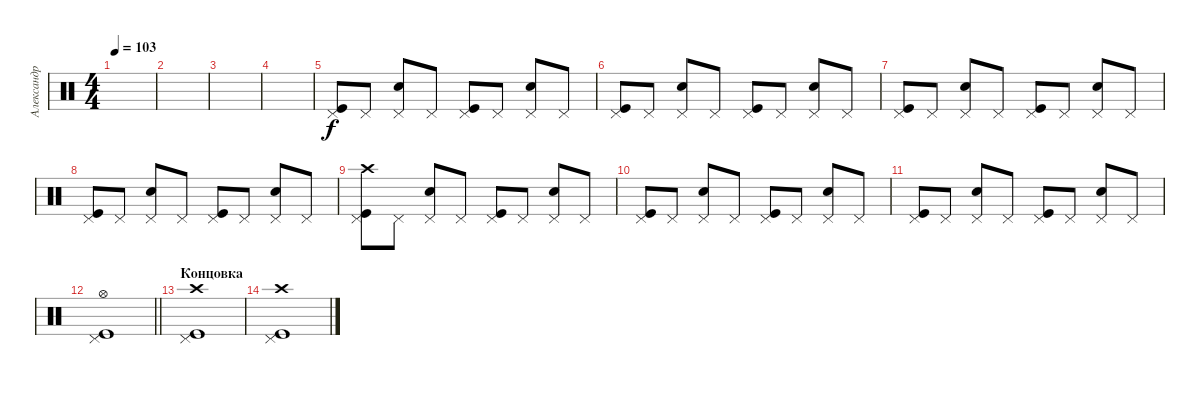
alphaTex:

\track ("Александр Ерохин (ударные)" "Александр ") {instrument percussion}
\staff {score}
\articulation defaults
\ts (4 4)
\tempo 103
\clef neutral
\ks c
|
|
|
|
("Kick (hit)" "Pedal Hi-Hat (hit)").8 "Pedal Hi-Hat (hit)".8 ("Pedal Hi-Hat (hit)" "Snare (hit) 2").8 "Pedal Hi-Hat (hit)".8 ("Kick (hit)" "Pedal Hi-Hat (hit)").8 "Pedal Hi-Hat (hit)".8 ("Pedal Hi-Hat (hit)" "Snare (hit) 2").8 "Pedal Hi-Hat (hit)".8 |
("Kick (hit)" "Pedal Hi-Hat (hit)").8 "Pedal Hi-Hat (hit)".8 ("Pedal Hi-Hat (hit)" "Snare (hit) 2").8 "Pedal Hi-Hat (hit)".8 ("Kick (hit)" "Pedal Hi-Hat (hit)").8 "Pedal Hi-Hat (hit)".8 ("Pedal Hi-Hat (hit)" "Snare (hit) 2").8 "Pedal Hi-Hat (hit)".8 |
("Kick (hit)" "Pedal Hi-Hat (hit)").8 "Pedal Hi-Hat (hit)".8 ("Pedal Hi-Hat (hit)" "Snare (hit) 2").8 "Pedal Hi-Hat (hit)".8 ("Kick (hit)" "Pedal Hi-Hat (hit)").8 "Pedal Hi-Hat (hit)".8 ("Pedal Hi-Hat (hit)" "Snare (hit) 2").8 "Pedal Hi-Hat (hit)".8 |
("Kick (hit)" "Pedal Hi-Hat (hit)").8 "Pedal Hi-Hat (hit)".8 ("Pedal Hi-Hat (hit)" "Snare (hit) 2").8 "Pedal Hi-Hat (hit)".8 ("Kick (hit)" "Pedal Hi-Hat (hit)").8 "Pedal Hi-Hat (hit)".8 ("Pedal Hi-Hat (hit)" "Snare (hit) 2").8 "Pedal Hi-Hat (hit)".8 |
("Kick (hit)" "Pedal Hi-Hat (hit)" "Crash high (hit)").8 "Pedal Hi-Hat (hit)".8 ("Pedal Hi-Hat (hit)" "Snare (hit) 2").8 "Pedal Hi-Hat (hit)".8 ("Kick (hit)" "Pedal Hi-Hat (hit)").8 "Pedal Hi-Hat (hit)".8 ("Pedal Hi-Hat (hit)" "Snare (hit) 2").8 "Pedal Hi-Hat (hit)".8 |
("Kick (hit)" "Pedal Hi-Hat (hit)").8 "Pedal Hi-Hat (hit)".8 ("Pedal Hi-Hat (hit)" "Snare (hit) 2").8 "Pedal Hi-Hat (hit)".8 ("Kick (hit)" "Pedal Hi-Hat (hit)").8 "Pedal Hi-Hat (hit)".8 ("Pedal Hi-Hat (hit)" "Snare (hit) 2").8 "Pedal Hi-Hat (hit)".8 |
("Kick (hit)" "Pedal Hi-Hat (hit)").8 "Pedal Hi-Hat (hit)".8 ("Pedal Hi-Hat (hit)" "Snare (hit) 2").8 "Pedal Hi-Hat (hit)".8 ("Kick (hit)" "Pedal Hi-Hat (hit)").8 "Pedal Hi-Hat (hit)".8 ("Pedal Hi-Hat (hit)" "Snare (hit) 2").8 "Pedal Hi-Hat (hit)".8 |
\barLineRight lightlight
("Kick (hit)" "Pedal Hi-Hat (hit)" "Hi-Hat (open)").1 |
\section ("" "Концовка")
("Kick (hit)" "Pedal Hi-Hat (hit)" "Crash high (hit)").1 |
("Kick (hit)" "Pedal Hi-Hat (hit)" "Crash high (hit)").1
